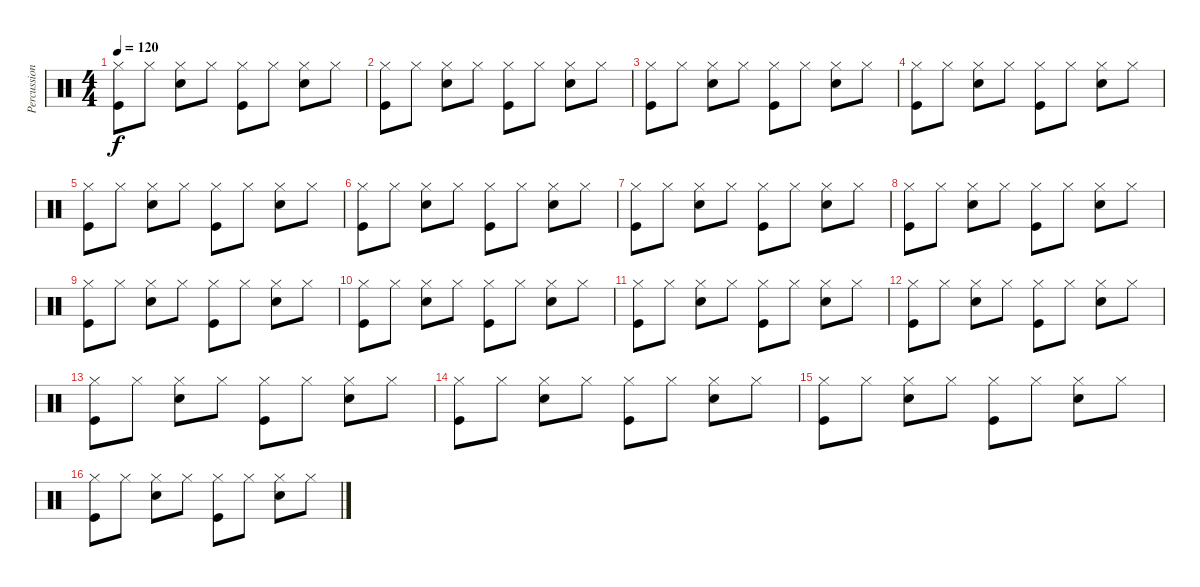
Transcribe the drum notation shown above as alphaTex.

\track ("Percussions" "Percussion") {instrument percussion}
\staff {score}
\articulation defaults
\ts (4 4)
\tempo 120
\clef neutral
\ks c
("Hi-Hat (closed)" "Kick (hit)").8{dy f} "Hi-Hat (closed)".8 ("Hi-Hat (closed)" "Snare (hit) 2").8 "Hi-Hat (closed)".8 ("Hi-Hat (closed)" "Kick (hit)").8 "Hi-Hat (closed)".8 ("Hi-Hat (closed)" "Snare (hit) 2").8 "Hi-Hat (closed)".8 |
("Hi-Hat (closed)" "Kick (hit)").8 "Hi-Hat (closed)".8 ("Hi-Hat (closed)" "Snare (hit) 2").8 "Hi-Hat (closed)".8 ("Hi-Hat (closed)" "Kick (hit)").8 "Hi-Hat (closed)".8 ("Hi-Hat (closed)" "Snare (hit) 2").8 "Hi-Hat (closed)".8 |
("Hi-Hat (closed)" "Kick (hit)").8 "Hi-Hat (closed)".8 ("Hi-Hat (closed)" "Snare (hit) 2").8 "Hi-Hat (closed)".8 ("Hi-Hat (closed)" "Kick (hit)").8 "Hi-Hat (closed)".8 ("Hi-Hat (closed)" "Snare (hit) 2").8 "Hi-Hat (closed)".8 |
("Hi-Hat (closed)" "Kick (hit)").8 "Hi-Hat (closed)".8 ("Hi-Hat (closed)" "Snare (hit) 2").8 "Hi-Hat (closed)".8 ("Hi-Hat (closed)" "Kick (hit)").8 "Hi-Hat (closed)".8 ("Hi-Hat (closed)" "Snare (hit) 2").8 "Hi-Hat (closed)".8 |
("Hi-Hat (closed)" "Kick (hit)").8 "Hi-Hat (closed)".8 ("Hi-Hat (closed)" "Snare (hit) 2").8 "Hi-Hat (closed)".8 ("Hi-Hat (closed)" "Kick (hit)").8 "Hi-Hat (closed)".8 ("Hi-Hat (closed)" "Snare (hit) 2").8 "Hi-Hat (closed)".8 |
("Hi-Hat (closed)" "Kick (hit)").8 "Hi-Hat (closed)".8 ("Hi-Hat (closed)" "Snare (hit) 2").8 "Hi-Hat (closed)".8 ("Hi-Hat (closed)" "Kick (hit)").8 "Hi-Hat (closed)".8 ("Hi-Hat (closed)" "Snare (hit) 2").8 "Hi-Hat (closed)".8 |
("Hi-Hat (closed)" "Kick (hit)").8 "Hi-Hat (closed)".8 ("Hi-Hat (closed)" "Snare (hit) 2").8 "Hi-Hat (closed)".8 ("Hi-Hat (closed)" "Kick (hit)").8 "Hi-Hat (closed)".8 ("Hi-Hat (closed)" "Snare (hit) 2").8 "Hi-Hat (closed)".8 |
("Hi-Hat (closed)" "Kick (hit)").8 "Hi-Hat (closed)".8 ("Hi-Hat (closed)" "Snare (hit) 2").8 "Hi-Hat (closed)".8 ("Hi-Hat (closed)" "Kick (hit)").8 "Hi-Hat (closed)".8 ("Hi-Hat (closed)" "Snare (hit) 2").8 "Hi-Hat (closed)".8 |
("Hi-Hat (closed)" "Kick (hit)").8 "Hi-Hat (closed)".8 ("Hi-Hat (closed)" "Snare (hit) 2").8 "Hi-Hat (closed)".8 ("Hi-Hat (closed)" "Kick (hit)").8 "Hi-Hat (closed)".8 ("Hi-Hat (closed)" "Snare (hit) 2").8 "Hi-Hat (closed)".8 |
("Hi-Hat (closed)" "Kick (hit)").8 "Hi-Hat (closed)".8 ("Hi-Hat (closed)" "Snare (hit) 2").8 "Hi-Hat (closed)".8 ("Hi-Hat (closed)" "Kick (hit)").8 "Hi-Hat (closed)".8 ("Hi-Hat (closed)" "Snare (hit) 2").8 "Hi-Hat (closed)".8 |
("Hi-Hat (closed)" "Kick (hit)").8 "Hi-Hat (closed)".8 ("Hi-Hat (closed)" "Snare (hit) 2").8 "Hi-Hat (closed)".8 ("Hi-Hat (closed)" "Kick (hit)").8 "Hi-Hat (closed)".8 ("Hi-Hat (closed)" "Snare (hit) 2").8 "Hi-Hat (closed)".8 |
("Hi-Hat (closed)" "Kick (hit)").8 "Hi-Hat (closed)".8 ("Hi-Hat (closed)" "Snare (hit) 2").8 "Hi-Hat (closed)".8 ("Hi-Hat (closed)" "Kick (hit)").8 "Hi-Hat (closed)".8 ("Hi-Hat (closed)" "Snare (hit) 2").8 "Hi-Hat (closed)".8 |
("Hi-Hat (closed)" "Kick (hit)").8 "Hi-Hat (closed)".8 ("Hi-Hat (closed)" "Snare (hit) 2").8 "Hi-Hat (closed)".8 ("Hi-Hat (closed)" "Kick (hit)").8 "Hi-Hat (closed)".8 ("Hi-Hat (closed)" "Snare (hit) 2").8 "Hi-Hat (closed)".8 |
("Hi-Hat (closed)" "Kick (hit)").8 "Hi-Hat (closed)".8 ("Hi-Hat (closed)" "Snare (hit) 2").8 "Hi-Hat (closed)".8 ("Hi-Hat (closed)" "Kick (hit)").8 "Hi-Hat (closed)".8 ("Hi-Hat (closed)" "Snare (hit) 2").8 "Hi-Hat (closed)".8 |
("Hi-Hat (closed)" "Kick (hit)").8 "Hi-Hat (closed)".8 ("Hi-Hat (closed)" "Snare (hit) 2").8 "Hi-Hat (closed)".8 ("Hi-Hat (closed)" "Kick (hit)").8 "Hi-Hat (closed)".8 ("Hi-Hat (closed)" "Snare (hit) 2").8 "Hi-Hat (closed)".8 |
("Hi-Hat (closed)" "Kick (hit)").8 "Hi-Hat (closed)".8 ("Hi-Hat (closed)" "Snare (hit) 2").8 "Hi-Hat (closed)".8 ("Hi-Hat (closed)" "Kick (hit)").8 "Hi-Hat (closed)".8 ("Hi-Hat (closed)" "Snare (hit) 2").8 "Hi-Hat (closed)".8
